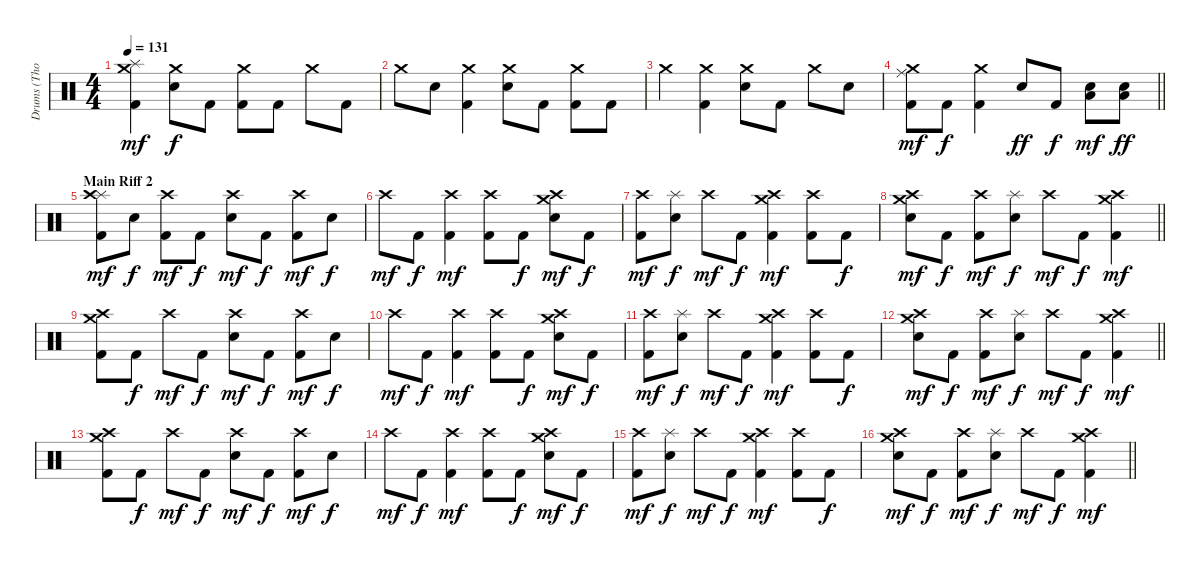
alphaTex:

\track ("Drums (Thomas Haake)" "Drums (Tho") {instrument percussion}
\staff {score}
\articulation defaults
\ts (4 4)
\tempo 131
\clef neutral
\ks c
("Crash medium (hit)" "Splash (hit)" "Kick (hit) 2").4{dy mf} ("Crash medium (hit)" "Electric Snare (hit)").8{dy f} "Kick (hit) 2".8 ("Crash medium (hit)" "Kick (hit) 2").8 "Kick (hit) 2".8 "Crash medium (hit)".8 "Kick (hit) 2".8 |
"Crash medium (hit)".8 "Electric Snare (hit)".8 ("Crash medium (hit)" "Kick (hit) 2").4 ("Crash medium (hit)" "Electric Snare (hit)").8 "Kick (hit) 2".8 ("Crash medium (hit)" "Kick (hit) 2").8 "Kick (hit) 2".8 |
"Crash medium (hit)".4 ("Crash medium (hit)" "Kick (hit) 2").4 ("Crash medium (hit)" "Electric Snare (hit)").8 "Kick (hit) 2".8 "Crash medium (hit)".8 "Electric Snare (hit)".8 |
\barLineRight lightlight
("Crash medium (hit)" "Ride (middle)" "Kick (hit) 2").8{dy mf} "Kick (hit) 2".8{dy f} ("Crash medium (hit)" "Kick (hit) 2").4 "Electric Snare (hit)".8{dy ff} "Kick (hit) 2".8{dy f} ("Low Floor Tom (hit)" "Electric Snare (hit)").8{dy mf} ("Low Floor Tom (hit)" "Electric Snare (hit)").8{dy ff} |
\section ("" "Main Riff 2")
("Splash (hit)" "Crash high (hit)" "Kick (hit) 2").8{dy mf} "Electric Snare (hit)".8{dy f} ("Crash high (hit)" "Kick (hit) 2").8{dy mf} "Kick (hit) 2".8{dy f} ("Crash high (hit)" "Electric Snare (hit)").8{dy mf} "Kick (hit) 2".8{dy f} ("Crash high (hit)" "Kick (hit) 2").8{dy mf} "Electric Snare (hit)".8{dy f} |
"Crash high (hit)".8{dy mf} "Kick (hit) 2".8{dy f} ("Crash high (hit)" "Kick (hit) 2").4{dy mf} ("Crash high (hit)" "Kick (hit) 2").8 "Kick (hit) 2".8{dy f} ("Crash medium (hit)" "Crash high (hit)" "Electric Snare (hit)").8{dy mf} "Kick (hit) 2".8{dy f} |
("Crash high (hit)" "Kick (hit) 2").8{dy mf} ("Splash (hit)" "Electric Snare (hit)").8{dy f} "Crash high (hit)".8{dy mf} "Kick (hit) 2".8{dy f} ("Crash medium (hit)" "Crash high (hit)" "Kick (hit) 2").4{dy mf} ("Crash high (hit)" "Kick (hit) 2").8 "Kick (hit) 2".8{dy f} |
\barLineRight lightlight
("Crash medium (hit)" "Crash high (hit)" "Electric Snare (hit)").8{dy mf} "Kick (hit) 2".8{dy f} ("Crash high (hit)" "Kick (hit) 2").8{dy mf} ("Splash (hit)" "Electric Snare (hit)").8{dy f} "Crash high (hit)".8{dy mf} "Kick (hit) 2".8{dy f} ("Crash medium (hit)" "Crash high (hit)" "Kick (hit) 2").4{dy mf} |
("Crash medium (hit)" "Crash high (hit)" "Kick (hit) 2").8 "Kick (hit) 2".8{dy f} "Crash high (hit)".8{dy mf} "Kick (hit) 2".8{dy f} ("Crash high (hit)" "Electric Snare (hit)").8{dy mf} "Kick (hit) 2".8{dy f} ("Crash high (hit)" "Kick (hit) 2").8{dy mf} "Electric Snare (hit)".8{dy f} |
"Crash high (hit)".8{dy mf} "Kick (hit) 2".8{dy f} ("Crash high (hit)" "Kick (hit) 2").4{dy mf} ("Crash high (hit)" "Kick (hit) 2").8 "Kick (hit) 2".8{dy f} ("Crash medium (hit)" "Crash high (hit)" "Electric Snare (hit)").8{dy mf} "Kick (hit) 2".8{dy f} |
("Crash high (hit)" "Kick (hit) 2").8{dy mf} ("Splash (hit)" "Electric Snare (hit)").8{dy f} "Crash high (hit)".8{dy mf} "Kick (hit) 2".8{dy f} ("Crash medium (hit)" "Crash high (hit)" "Kick (hit) 2").4{dy mf} ("Crash high (hit)" "Kick (hit) 2").8 "Kick (hit) 2".8{dy f} |
\barLineRight lightlight
("Crash medium (hit)" "Crash high (hit)" "Electric Snare (hit)").8{dy mf} "Kick (hit) 2".8{dy f} ("Crash high (hit)" "Kick (hit) 2").8{dy mf} ("Splash (hit)" "Electric Snare (hit)").8{dy f} "Crash high (hit)".8{dy mf} "Kick (hit) 2".8{dy f} ("Crash medium (hit)" "Crash high (hit)" "Kick (hit) 2").4{dy mf} |
("Crash medium (hit)" "Crash high (hit)" "Kick (hit) 2").8 "Kick (hit) 2".8{dy f} "Crash high (hit)".8{dy mf} "Kick (hit) 2".8{dy f} ("Crash high (hit)" "Electric Snare (hit)").8{dy mf} "Kick (hit) 2".8{dy f} ("Crash high (hit)" "Kick (hit) 2").8{dy mf} "Electric Snare (hit)".8{dy f} |
"Crash high (hit)".8{dy mf} "Kick (hit) 2".8{dy f} ("Crash high (hit)" "Kick (hit) 2").4{dy mf} ("Crash high (hit)" "Kick (hit) 2").8 "Kick (hit) 2".8{dy f} ("Crash medium (hit)" "Crash high (hit)" "Electric Snare (hit)").8{dy mf} "Kick (hit) 2".8{dy f} |
("Crash high (hit)" "Kick (hit) 2").8{dy mf} ("Splash (hit)" "Electric Snare (hit)").8{dy f} "Crash high (hit)".8{dy mf} "Kick (hit) 2".8{dy f} ("Crash medium (hit)" "Crash high (hit)" "Kick (hit) 2").4{dy mf} ("Crash high (hit)" "Kick (hit) 2").8 "Kick (hit) 2".8{dy f} |
\barLineRight lightlight
("Crash medium (hit)" "Crash high (hit)" "Electric Snare (hit)").8{dy mf} "Kick (hit) 2".8{dy f} ("Crash high (hit)" "Kick (hit) 2").8{dy mf} ("Splash (hit)" "Electric Snare (hit)").8{dy f} "Crash high (hit)".8{dy mf} "Kick (hit) 2".8{dy f} ("Crash medium (hit)" "Crash high (hit)" "Kick (hit) 2").4{dy mf}
